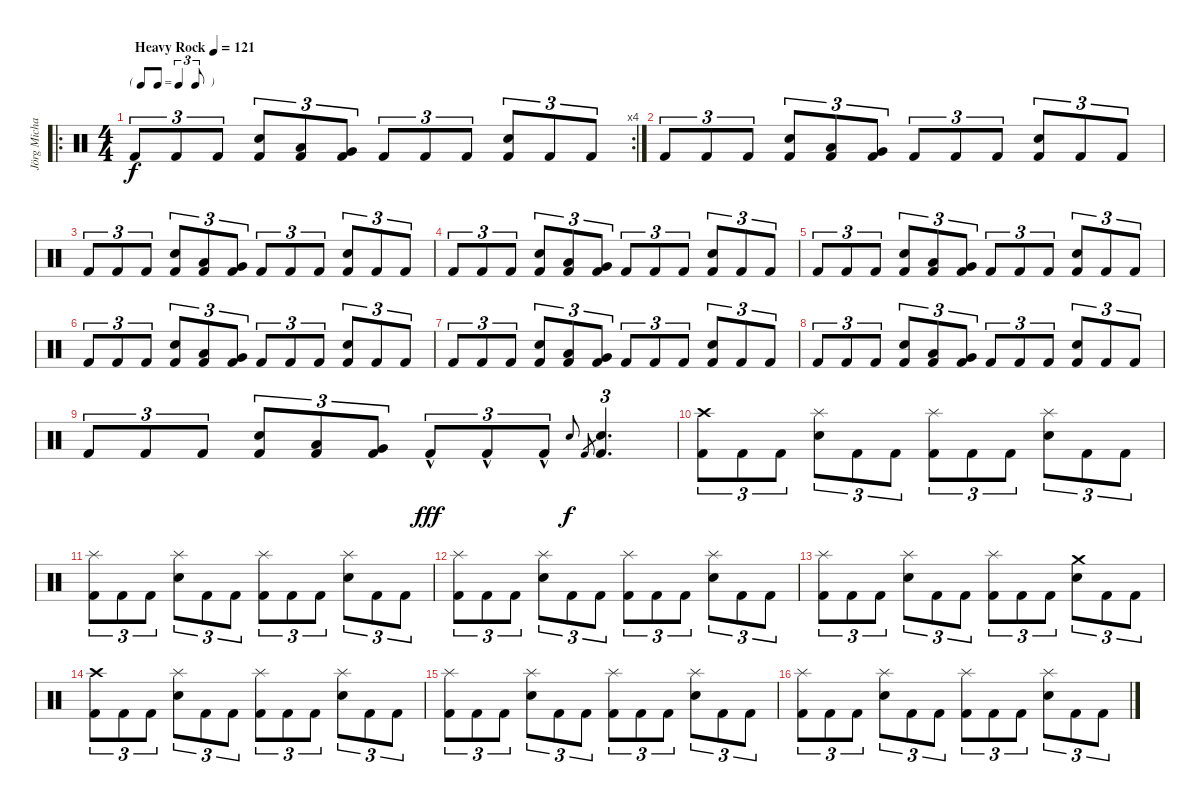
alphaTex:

\track ("Jörg Michael" "Jörg Micha") {instrument percussion}
\staff {score}
\articulation defaults
\ro
\rc 4
\ts (4 4)
\tf triplet8th
\tempo (121 "Heavy Rock")
\clef neutral
\ks c "Kick (hit) 2".8{tu (3 2) dy f} "Kick (hit) 2".8{tu (3 2)} "Kick (hit) 2".8{tu (3 2)}
("Snare (hit) 2" "Kick (hit) 2").8{tu (3 2)} ("Low Tom (hit)" "Kick (hit) 2").8{tu (3 2)} ("Very Low Tom (hit)" "Kick (hit) 2").8{tu (3 2)} "Kick (hit) 2".8{tu (3 2)} "Kick (hit) 2".8{tu (3 2)} "Kick (hit) 2".8{tu (3 2)} ("Snare (hit) 2" "Kick (hit) 2").8{tu (3 2)} "Kick (hit) 2".8{tu (3 2)} "Kick (hit) 2".8{tu (3 2)} |
"Kick (hit) 2".8{tu (3 2)} "Kick (hit) 2".8{tu (3 2)} "Kick (hit) 2".8{tu (3 2)} ("Snare (hit) 2" "Kick (hit) 2").8{tu (3 2)} ("Low Tom (hit)" "Kick (hit) 2").8{tu (3 2)} ("Very Low Tom (hit)" "Kick (hit) 2").8{tu (3 2)} "Kick (hit) 2".8{tu (3 2)} "Kick (hit) 2".8{tu (3 2)} "Kick (hit) 2".8{tu (3 2)} ("Snare (hit) 2" "Kick (hit) 2").8{tu (3 2)} "Kick (hit) 2".8{tu (3 2)} "Kick (hit) 2".8{tu (3 2)} |
"Kick (hit) 2".8{tu (3 2)} "Kick (hit) 2".8{tu (3 2)} "Kick (hit) 2".8{tu (3 2)} ("Snare (hit) 2" "Kick (hit) 2").8{tu (3 2)} ("Low Tom (hit)" "Kick (hit) 2").8{tu (3 2)} ("Very Low Tom (hit)" "Kick (hit) 2").8{tu (3 2)} "Kick (hit) 2".8{tu (3 2)} "Kick (hit) 2".8{tu (3 2)} "Kick (hit) 2".8{tu (3 2)} ("Snare (hit) 2" "Kick (hit) 2").8{tu (3 2)} "Kick (hit) 2".8{tu (3 2)} "Kick (hit) 2".8{tu (3 2)} |
"Kick (hit) 2".8{tu (3 2)} "Kick (hit) 2".8{tu (3 2)} "Kick (hit) 2".8{tu (3 2)} ("Snare (hit) 2" "Kick (hit) 2").8{tu (3 2)} ("Low Tom (hit)" "Kick (hit) 2").8{tu (3 2)} ("Very Low Tom (hit)" "Kick (hit) 2").8{tu (3 2)} "Kick (hit) 2".8{tu (3 2)} "Kick (hit) 2".8{tu (3 2)} "Kick (hit) 2".8{tu (3 2)} ("Snare (hit) 2" "Kick (hit) 2").8{tu (3 2)} "Kick (hit) 2".8{tu (3 2)} "Kick (hit) 2".8{tu (3 2)} |
"Kick (hit) 2".8{tu (3 2)} "Kick (hit) 2".8{tu (3 2)} "Kick (hit) 2".8{tu (3 2)} ("Snare (hit) 2" "Kick (hit) 2").8{tu (3 2)} ("Low Tom (hit)" "Kick (hit) 2").8{tu (3 2)} ("Very Low Tom (hit)" "Kick (hit) 2").8{tu (3 2)} "Kick (hit) 2".8{tu (3 2)} "Kick (hit) 2".8{tu (3 2)} "Kick (hit) 2".8{tu (3 2)} ("Snare (hit) 2" "Kick (hit) 2").8{tu (3 2)} "Kick (hit) 2".8{tu (3 2)} "Kick (hit) 2".8{tu (3 2)} |
"Kick (hit) 2".8{tu (3 2)} "Kick (hit) 2".8{tu (3 2)} "Kick (hit) 2".8{tu (3 2)} ("Snare (hit) 2" "Kick (hit) 2").8{tu (3 2)} ("Low Tom (hit)" "Kick (hit) 2").8{tu (3 2)} ("Very Low Tom (hit)" "Kick (hit) 2").8{tu (3 2)} "Kick (hit) 2".8{tu (3 2)} "Kick (hit) 2".8{tu (3 2)} "Kick (hit) 2".8{tu (3 2)} ("Snare (hit) 2" "Kick (hit) 2").8{tu (3 2)} "Kick (hit) 2".8{tu (3 2)} "Kick (hit) 2".8{tu (3 2)} |
"Kick (hit) 2".8{tu (3 2)} "Kick (hit) 2".8{tu (3 2)} "Kick (hit) 2".8{tu (3 2)} ("Snare (hit) 2" "Kick (hit) 2").8{tu (3 2)} ("Low Tom (hit)" "Kick (hit) 2").8{tu (3 2)} ("Very Low Tom (hit)" "Kick (hit) 2").8{tu (3 2)} "Kick (hit) 2".8{tu (3 2)} "Kick (hit) 2".8{tu (3 2)} "Kick (hit) 2".8{tu (3 2)} ("Snare (hit) 2" "Kick (hit) 2").8{tu (3 2)} "Kick (hit) 2".8{tu (3 2)} "Kick (hit) 2".8{tu (3 2)} |
"Kick (hit) 2".8{tu (3 2)} "Kick (hit) 2".8{tu (3 2)} "Kick (hit) 2".8{tu (3 2)} ("Snare (hit) 2" "Kick (hit) 2").8{tu (3 2)} ("Low Tom (hit)" "Kick (hit) 2").8{tu (3 2)} ("Very Low Tom (hit)" "Kick (hit) 2").8{tu (3 2)} "Kick (hit) 2".8{tu (3 2)} "Kick (hit) 2".8{tu (3 2)} "Kick (hit) 2".8{tu (3 2)} ("Snare (hit) 2" "Kick (hit) 2").8{tu (3 2)} "Kick (hit) 2".8{tu (3 2)} "Kick (hit) 2".8{tu (3 2)} |
"Kick (hit) 2".8{tu (3 2)} "Kick (hit) 2".8{tu (3 2)} "Kick (hit) 2".8{tu (3 2)} ("Snare (hit) 2" "Kick (hit) 2").8{tu (3 2)} ("Low Tom (hit)" "Kick (hit) 2").8{tu (3 2)} ("Very Low Tom (hit)" "Kick (hit) 2").8{tu (3 2)} "Kick (hit) 2"{hac}.8{tu (3 2) dy fff} "Kick (hit) 2"{hac}.8{tu (3 2)} "Kick (hit) 2"{hac}.8{tu (3 2)} "Snare (hit) 2"{sl}.16{gr onbeat dy f} "Kick (hit) 2".16{gr} ("Snare (hit) 2" "Kick (hit) 2").4{d tu (3 2)} |
("Crash high (hit)" "Kick (hit) 2").8{tu (3 2)} "Kick (hit) 2".8{tu (3 2)} "Kick (hit) 2".8{tu (3 2)} ("Splash (hit)" "Snare (hit) 2").8{tu (3 2)} "Kick (hit) 2".8{tu (3 2)} "Kick (hit) 2".8{tu (3 2)} ("Splash (hit)" "Kick (hit) 2").8{tu (3 2)} "Kick (hit) 2".8{tu (3 2)} "Kick (hit) 2".8{tu (3 2)} ("Splash (hit)" "Snare (hit) 2").8{tu (3 2)} "Kick (hit) 2".8{tu (3 2)} "Kick (hit) 2".8{tu (3 2)} |
("Splash (hit)" "Kick (hit) 2").8{tu (3 2)} "Kick (hit) 2".8{tu (3 2)} "Kick (hit) 2".8{tu (3 2)} ("Splash (hit)" "Snare (hit) 2").8{tu (3 2)} "Kick (hit) 2".8{tu (3 2)} "Kick (hit) 2".8{tu (3 2)} ("Splash (hit)" "Kick (hit) 2").8{tu (3 2)} "Kick (hit) 2".8{tu (3 2)} "Kick (hit) 2".8{tu (3 2)} ("Splash (hit)" "Snare (hit) 2").8{tu (3 2)} "Kick (hit) 2".8{tu (3 2)} "Kick (hit) 2".8{tu (3 2)} |
("Splash (hit)" "Kick (hit) 2").8{tu (3 2)} "Kick (hit) 2".8{tu (3 2)} "Kick (hit) 2".8{tu (3 2)} ("Splash (hit)" "Snare (hit) 2").8{tu (3 2)} "Kick (hit) 2".8{tu (3 2)} "Kick (hit) 2".8{tu (3 2)} ("Splash (hit)" "Kick (hit) 2").8{tu (3 2)} "Kick (hit) 2".8{tu (3 2)} "Kick (hit) 2".8{tu (3 2)} ("Splash (hit)" "Snare (hit) 2").8{tu (3 2)} "Kick (hit) 2".8{tu (3 2)} "Kick (hit) 2".8{tu (3 2)} |
("Splash (hit)" "Kick (hit) 2").8{tu (3 2)} "Kick (hit) 2".8{tu (3 2)} "Kick (hit) 2".8{tu (3 2)} ("Splash (hit)" "Snare (hit) 2").8{tu (3 2)} "Kick (hit) 2".8{tu (3 2)} "Kick (hit) 2".8{tu (3 2)} ("Splash (hit)" "Kick (hit) 2").8{tu (3 2)} "Kick (hit) 2".8{tu (3 2)} "Kick (hit) 2".8{tu (3 2)} ("Crash medium (hit)" "Snare (hit) 2").8{tu (3 2)} "Kick (hit) 2".8{tu (3 2)} "Kick (hit) 2".8{tu (3 2)} |
("Crash high (hit)" "Kick (hit) 2").8{tu (3 2)} "Kick (hit) 2".8{tu (3 2)} "Kick (hit) 2".8{tu (3 2)} ("Splash (hit)" "Snare (hit) 2").8{tu (3 2)} "Kick (hit) 2".8{tu (3 2)} "Kick (hit) 2".8{tu (3 2)} ("Splash (hit)" "Kick (hit) 2").8{tu (3 2)} "Kick (hit) 2".8{tu (3 2)} "Kick (hit) 2".8{tu (3 2)} ("Splash (hit)" "Snare (hit) 2").8{tu (3 2)} "Kick (hit) 2".8{tu (3 2)} "Kick (hit) 2".8{tu (3 2)} |
("Splash (hit)" "Kick (hit) 2").8{tu (3 2)} "Kick (hit) 2".8{tu (3 2)} "Kick (hit) 2".8{tu (3 2)} ("Splash (hit)" "Snare (hit) 2").8{tu (3 2)} "Kick (hit) 2".8{tu (3 2)} "Kick (hit) 2".8{tu (3 2)} ("Splash (hit)" "Kick (hit) 2").8{tu (3 2)} "Kick (hit) 2".8{tu (3 2)} "Kick (hit) 2".8{tu (3 2)} ("Splash (hit)" "Snare (hit) 2").8{tu (3 2)} "Kick (hit) 2".8{tu (3 2)} "Kick (hit) 2".8{tu (3 2)} |
("Splash (hit)" "Kick (hit) 2").8{tu (3 2)} "Kick (hit) 2".8{tu (3 2)} "Kick (hit) 2".8{tu (3 2)} ("Splash (hit)" "Snare (hit) 2").8{tu (3 2)} "Kick (hit) 2".8{tu (3 2)} "Kick (hit) 2".8{tu (3 2)} ("Splash (hit)" "Kick (hit) 2").8{tu (3 2)} "Kick (hit) 2".8{tu (3 2)} "Kick (hit) 2".8{tu (3 2)} ("Splash (hit)" "Snare (hit) 2").8{tu (3 2)} "Kick (hit) 2".8{tu (3 2)} "Kick (hit) 2".8{tu (3 2)}
